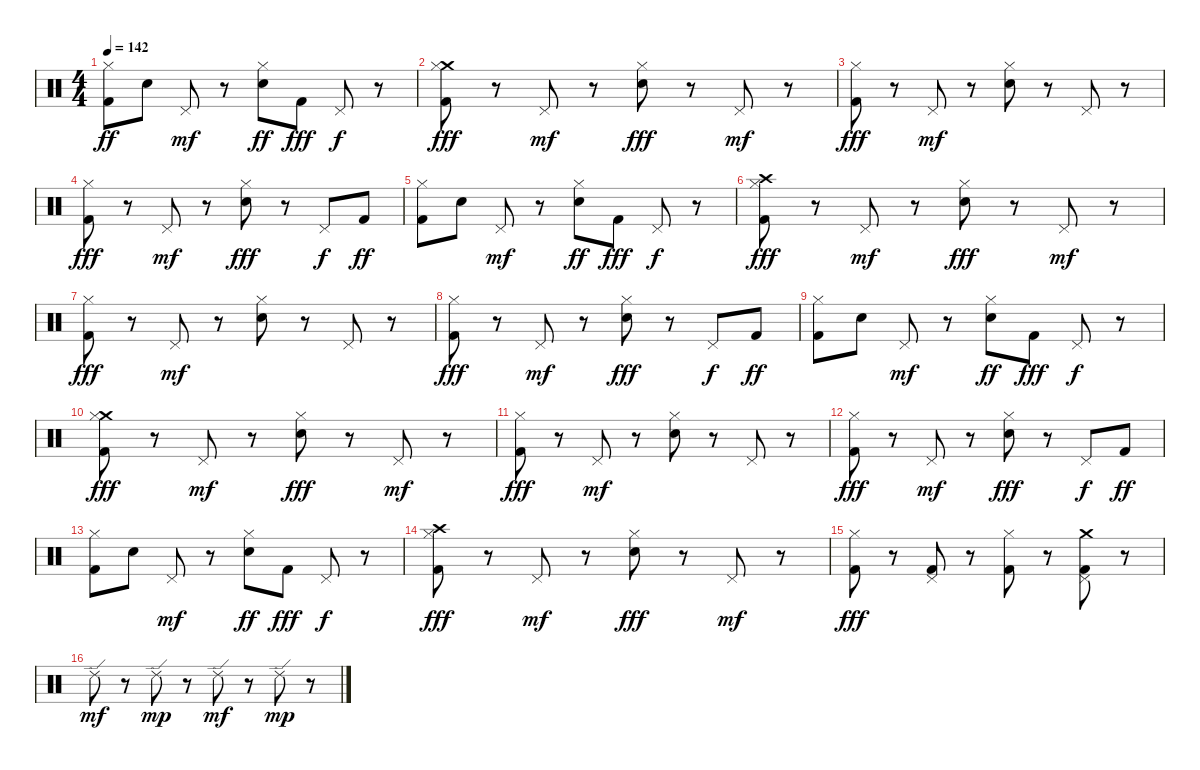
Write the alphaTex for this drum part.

\track "" {instrument percussion}
\staff {score}
\articulation defaults
\ts (4 4)
\tempo 142
\clef neutral
\ks c
("Kick (hit) 2" "Hi-Hat (closed)").8{dy ff} "Electric Snare (hit)".8 "Pedal Hi-Hat (hit)".8{dy mf} r.8 ("Electric Snare (hit)" "Hi-Hat (closed)").8{dy ff} "Kick (hit) 2".8{dy fff} "Pedal Hi-Hat (hit)".8{dy f} r.8 |
("Crash medium (hit)" "Kick (hit) 2" "Hi-Hat (closed)").8{dy fff} r.8 "Pedal Hi-Hat (hit)".8{dy mf} r.8 ("Electric Snare (hit)" "Hi-Hat (closed)").8{dy fff} r.8 "Pedal Hi-Hat (hit)".8{dy mf} r.8 |
("Kick (hit) 2" "Hi-Hat (closed)").8{dy fff} r.8 "Pedal Hi-Hat (hit)".8{dy mf} r.8 ("Electric Snare (hit)" "Hi-Hat (closed)").8 r.8 "Pedal Hi-Hat (hit)".8 r.8 |
("Kick (hit) 2" "Hi-Hat (closed)").8{dy fff} r.8 "Pedal Hi-Hat (hit)".8{dy mf} r.8 ("Electric Snare (hit)" "Hi-Hat (closed)").8{dy fff} r.8 "Pedal Hi-Hat (hit)".8{dy f} "Kick (hit) 2".8{dy ff} |
("Kick (hit) 2" "Hi-Hat (closed)").8 "Electric Snare (hit)".8 "Pedal Hi-Hat (hit)".8{dy mf} r.8 ("Electric Snare (hit)" "Hi-Hat (closed)").8{dy ff} "Kick (hit) 2".8{dy fff} "Pedal Hi-Hat (hit)".8{dy f} r.8 |
("Crash high (hit)" "Kick (hit) 2" "Hi-Hat (closed)").8{dy fff} r.8 "Pedal Hi-Hat (hit)".8{dy mf} r.8 ("Electric Snare (hit)" "Hi-Hat (closed)").8{dy fff} r.8 "Pedal Hi-Hat (hit)".8{dy mf} r.8 |
("Kick (hit) 2" "Hi-Hat (closed)").8{dy fff} r.8 "Pedal Hi-Hat (hit)".8{dy mf} r.8 ("Electric Snare (hit)" "Hi-Hat (closed)").8 r.8 "Pedal Hi-Hat (hit)".8 r.8 |
("Kick (hit) 2" "Hi-Hat (closed)").8{dy fff} r.8 "Pedal Hi-Hat (hit)".8{dy mf} r.8 ("Electric Snare (hit)" "Hi-Hat (closed)").8{dy fff} r.8 "Pedal Hi-Hat (hit)".8{dy f} "Kick (hit) 2".8{dy ff} |
("Kick (hit) 2" "Hi-Hat (closed)").8 "Electric Snare (hit)".8 "Pedal Hi-Hat (hit)".8{dy mf} r.8 ("Electric Snare (hit)" "Hi-Hat (closed)").8{dy ff} "Kick (hit) 2".8{dy fff} "Pedal Hi-Hat (hit)".8{dy f} r.8 |
("Crash medium (hit)" "Kick (hit) 2" "Hi-Hat (closed)").8{dy fff} r.8 "Pedal Hi-Hat (hit)".8{dy mf} r.8 ("Electric Snare (hit)" "Hi-Hat (closed)").8{dy fff} r.8 "Pedal Hi-Hat (hit)".8{dy mf} r.8 |
("Kick (hit) 2" "Hi-Hat (closed)").8{dy fff} r.8 "Pedal Hi-Hat (hit)".8{dy mf} r.8 ("Electric Snare (hit)" "Hi-Hat (closed)").8 r.8 "Pedal Hi-Hat (hit)".8 r.8 |
("Kick (hit) 2" "Hi-Hat (closed)").8{dy fff} r.8 "Pedal Hi-Hat (hit)".8{dy mf} r.8 ("Electric Snare (hit)" "Hi-Hat (closed)").8{dy fff} r.8 "Pedal Hi-Hat (hit)".8{dy f} "Kick (hit) 2".8{dy ff} |
("Kick (hit) 2" "Hi-Hat (closed)").8 "Electric Snare (hit)".8 "Pedal Hi-Hat (hit)".8{dy mf} r.8 ("Electric Snare (hit)" "Hi-Hat (closed)").8{dy ff} "Kick (hit) 2".8{dy fff} "Pedal Hi-Hat (hit)".8{dy f} r.8 |
("Crash high (hit)" "Kick (hit) 2" "Hi-Hat (closed)").8{dy fff} r.8 "Pedal Hi-Hat (hit)".8{dy mf} r.8 ("Electric Snare (hit)" "Hi-Hat (closed)").8{dy fff} r.8 "Pedal Hi-Hat (hit)".8{dy mf} r.8 |
("Kick (hit) 2" "Hi-Hat (closed)").8{dy fff} r.8 ("Pedal Hi-Hat (hit)" "Kick (hit) 2").8 r.8 ("Kick (hit) 2" "Hi-Hat (closed)").8 r.8 ("Crash medium (hit)" "Pedal Hi-Hat (hit)" "Kick (hit) 2").8 r.8 |
"Ride (edge) 2".8{dy mf} r.8 "Ride (edge) 2".8{dy mp} r.8 "Ride (edge) 2".8{dy mf} r.8 "Ride (edge) 2".8{dy mp} r.8
